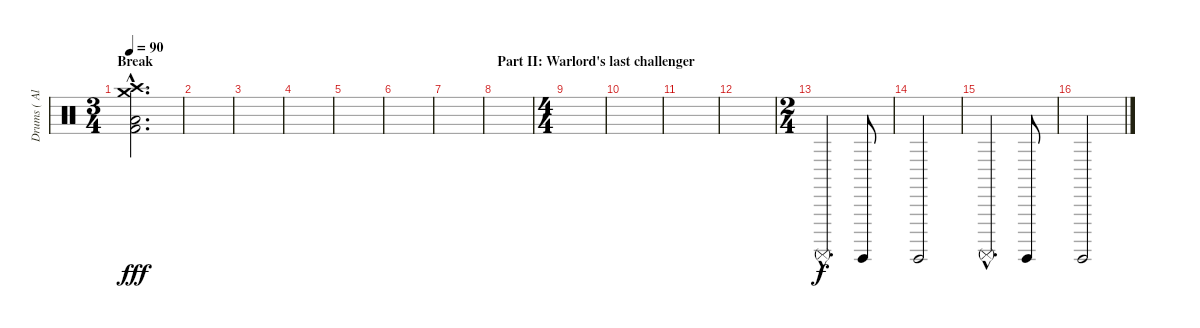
\track ("Drums ( Alex Holzwarth)" "Drums ( Al") {instrument percussion}
\staff {score}
\articulation defaults
\ts (3 4)
\section ("" "Break")
\tempo 90
\clef neutral
\ks c
("Crash high (hit)"{hac} "Crash medium (hit)"{hac} "Low Floor Tom (hit)"{hac} "Kick (hit) 2"{hac}).2{d dy fff} |
|
|
|
|
|
|
\section ("" "Part II: Warlord's last challenger")
|
\ts (4 4)
|
|
|
|
\ts (2 4)
"Surdo (mute)"{hac}.4{d dy f} "Surdo (hit)".8 |
"Surdo (hit)".2 |
"Surdo (mute)"{hac}.4{d} "Surdo (hit)".8 |
"Surdo (hit)".2
